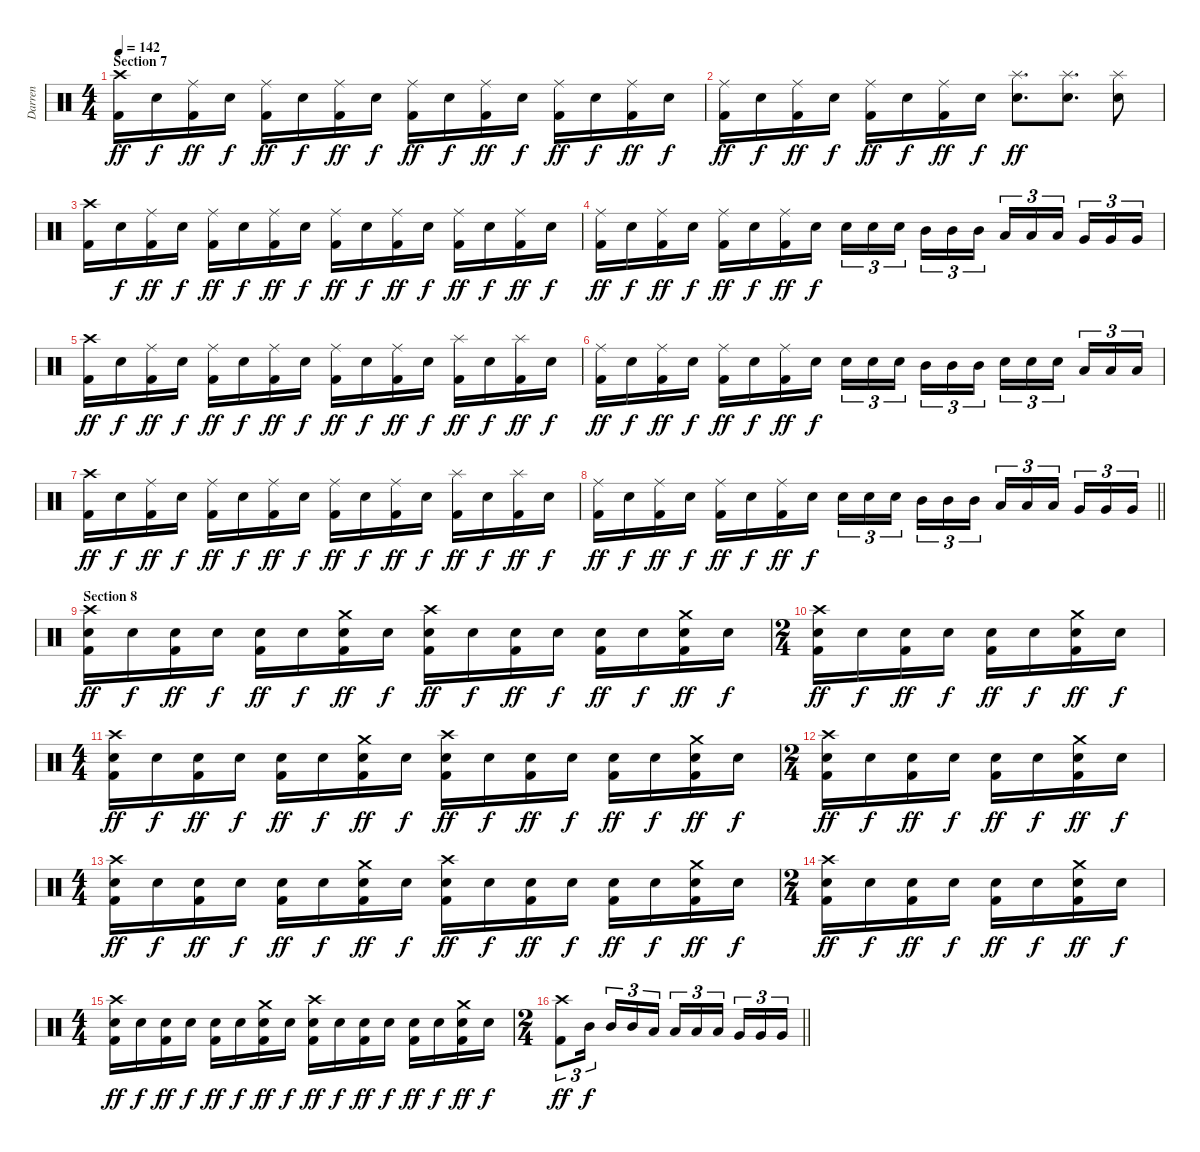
\track ("Darren" "Darren") {instrument percussion}
\staff {score}
\articulation defaults
\ts (4 4)
\section ("" "Section 7")
\tempo 142
\clef neutral
\ks c
("Crash high (hit)" "Kick (hit) 2").16{dy ff} "Electric Snare (hit)".16{dy f} ("Ride (middle)" "Kick (hit) 2").16{dy ff} "Electric Snare (hit)".16{dy f} ("Ride (middle)" "Kick (hit) 2").16{dy ff} "Electric Snare (hit)".16{dy f} ("Ride (middle)" "Kick (hit) 2").16{dy ff} "Electric Snare (hit)".16{dy f} ("Ride (middle)" "Kick (hit) 2").16{dy ff} "Electric Snare (hit)".16{dy f} ("Ride (middle)" "Kick (hit) 2").16{dy ff} "Electric Snare (hit)".16{dy f} ("Ride (middle)" "Kick (hit) 2").16{dy ff} "Electric Snare (hit)".16{dy f} ("Ride (middle)" "Kick (hit) 2").16{dy ff} "Electric Snare (hit)".16{dy f} |
("Ride (middle)" "Kick (hit) 2").16{dy ff} "Electric Snare (hit)".16{dy f} ("Ride (middle)" "Kick (hit) 2").16{dy ff} "Electric Snare (hit)".16{dy f} ("Ride (middle)" "Kick (hit) 2").16{dy ff} "Electric Snare (hit)".16{dy f} ("Ride (middle)" "Kick (hit) 2").16{dy ff} "Electric Snare (hit)".16{dy f} ("Splash (hit)" "Electric Snare (hit)").8{d dy ff} ("Splash (hit)" "Electric Snare (hit)").8{d} ("Splash (hit)" "Electric Snare (hit)").8 |
("Crash high (hit)" "Kick (hit) 2").16 "Electric Snare (hit)".16{dy f} ("Ride (middle)" "Kick (hit) 2").16{dy ff} "Electric Snare (hit)".16{dy f} ("Ride (middle)" "Kick (hit) 2").16{dy ff} "Electric Snare (hit)".16{dy f} ("Ride (middle)" "Kick (hit) 2").16{dy ff} "Electric Snare (hit)".16{dy f} ("Ride (middle)" "Kick (hit) 2").16{dy ff} "Electric Snare (hit)".16{dy f} ("Ride (middle)" "Kick (hit) 2").16{dy ff} "Electric Snare (hit)".16{dy f} ("Ride (middle)" "Kick (hit) 2").16{dy ff} "Electric Snare (hit)".16{dy f} ("Ride (middle)" "Kick (hit) 2").16{dy ff} "Electric Snare (hit)".16{dy f} |
("Ride (middle)" "Kick (hit) 2").16{dy ff} "Electric Snare (hit)".16{dy f} ("Ride (middle)" "Kick (hit) 2").16{dy ff} "Electric Snare (hit)".16{dy f} ("Ride (middle)" "Kick (hit) 2").16{dy ff} "Electric Snare (hit)".16{dy f} ("Ride (middle)" "Kick (hit) 2").16{dy ff} "Electric Snare (hit)".16{dy f} "Electric Snare (hit)".16{tu (3 2)} "Electric Snare (hit)".16{tu (3 2)} "Electric Snare (hit)".16{tu (3 2) beam splitsecondary} "Mid Tom (hit)".16{tu (3 2)} "Mid Tom (hit)".16{tu (3 2)} "Mid Tom (hit)".16{tu (3 2)} "Low Tom (hit)".16{tu (3 2)} "Low Tom (hit)".16{tu (3 2)} "Low Tom (hit)".16{tu (3 2) beam splitsecondary} "Very Low Tom (hit)".16{tu (3 2)} "Very Low Tom (hit)".16{tu (3 2)} "Very Low Tom (hit)".16{tu (3 2)} |
("Crash high (hit)" "Kick (hit) 2").16{dy ff} "Electric Snare (hit)".16{dy f} ("Ride (middle)" "Kick (hit) 2").16{dy ff} "Electric Snare (hit)".16{dy f} ("Ride (middle)" "Kick (hit) 2").16{dy ff} "Electric Snare (hit)".16{dy f} ("Ride (middle)" "Kick (hit) 2").16{dy ff} "Electric Snare (hit)".16{dy f} ("Ride (middle)" "Kick (hit) 2").16{dy ff} "Electric Snare (hit)".16{dy f} ("Ride (middle)" "Kick (hit) 2").16{dy ff} "Electric Snare (hit)".16{dy f} ("Splash (hit)" "Kick (hit) 2").16{dy ff} "Electric Snare (hit)".16{dy f} ("Splash (hit)" "Kick (hit) 2").16{dy ff} "Electric Snare (hit)".16{dy f} |
("Ride (middle)" "Kick (hit) 2").16{dy ff} "Electric Snare (hit)".16{dy f} ("Ride (middle)" "Kick (hit) 2").16{dy ff} "Electric Snare (hit)".16{dy f} ("Ride (middle)" "Kick (hit) 2").16{dy ff} "Electric Snare (hit)".16{dy f} ("Ride (middle)" "Kick (hit) 2").16{dy ff} "Electric Snare (hit)".16{dy f} "Electric Snare (hit)".16{tu (3 2)} "Electric Snare (hit)".16{tu (3 2)} "Electric Snare (hit)".16{tu (3 2) beam splitsecondary} "Mid Tom (hit)".16{tu (3 2)} "Mid Tom (hit)".16{tu (3 2)} "Mid Tom (hit)".16{tu (3 2)} "Electric Snare (hit)".16{tu (3 2)} "Electric Snare (hit)".16{tu (3 2)} "Electric Snare (hit)".16{tu (3 2) beam splitsecondary} "Low Tom (hit)".16{tu (3 2)} "Low Tom (hit)".16{tu (3 2)} "Low Tom (hit)".16{tu (3 2)} |
("Crash high (hit)" "Kick (hit) 2").16{dy ff} "Electric Snare (hit)".16{dy f} ("Ride (middle)" "Kick (hit) 2").16{dy ff} "Electric Snare (hit)".16{dy f} ("Ride (middle)" "Kick (hit) 2").16{dy ff} "Electric Snare (hit)".16{dy f} ("Ride (middle)" "Kick (hit) 2").16{dy ff} "Electric Snare (hit)".16{dy f} ("Ride (middle)" "Kick (hit) 2").16{dy ff} "Electric Snare (hit)".16{dy f} ("Ride (middle)" "Kick (hit) 2").16{dy ff} "Electric Snare (hit)".16{dy f} ("Splash (hit)" "Kick (hit) 2").16{dy ff} "Electric Snare (hit)".16{dy f} ("Splash (hit)" "Kick (hit) 2").16{dy ff} "Electric Snare (hit)".16{dy f} |
\barLineRight lightlight
("Ride (middle)" "Kick (hit) 2").16{dy ff} "Electric Snare (hit)".16{dy f} ("Ride (middle)" "Kick (hit) 2").16{dy ff} "Electric Snare (hit)".16{dy f} ("Ride (middle)" "Kick (hit) 2").16{dy ff} "Electric Snare (hit)".16{dy f} ("Ride (middle)" "Kick (hit) 2").16{dy ff} "Electric Snare (hit)".16{dy f} "Electric Snare (hit)".16{tu (3 2)} "Electric Snare (hit)".16{tu (3 2)} "Electric Snare (hit)".16{tu (3 2) beam splitsecondary} "Mid Tom (hit)".16{tu (3 2)} "Mid Tom (hit)".16{tu (3 2)} "Mid Tom (hit)".16{tu (3 2)} "Low Tom (hit)".16{tu (3 2)} "Low Tom (hit)".16{tu (3 2)} "Low Tom (hit)".16{tu (3 2) beam splitsecondary} "Very Low Tom (hit)".16{tu (3 2)} "Very Low Tom (hit)".16{tu (3 2)} "Very Low Tom (hit)".16{tu (3 2)} |
\section ("" "Section 8")
("Crash high (hit)" "Electric Snare (hit)" "Kick (hit) 2").16{dy ff} "Electric Snare (hit)".16{dy f} ("Electric Snare (hit)" "Kick (hit) 2").16{dy ff} "Electric Snare (hit)".16{dy f} ("Electric Snare (hit)" "Kick (hit) 2").16{dy ff} "Electric Snare (hit)".16{dy f} ("Crash medium (hit)" "Electric Snare (hit)" "Kick (hit) 2").16{dy ff} "Electric Snare (hit)".16{dy f} ("Crash high (hit)" "Electric Snare (hit)" "Kick (hit) 2").16{dy ff} "Electric Snare (hit)".16{dy f} ("Electric Snare (hit)" "Kick (hit) 2").16{dy ff} "Electric Snare (hit)".16{dy f} ("Electric Snare (hit)" "Kick (hit) 2").16{dy ff} "Electric Snare (hit)".16{dy f} ("Crash medium (hit)" "Electric Snare (hit)" "Kick (hit) 2").16{dy ff} "Electric Snare (hit)".16{dy f} |
\ts (2 4)
("Crash high (hit)" "Electric Snare (hit)" "Kick (hit) 2").16{dy ff} "Electric Snare (hit)".16{dy f} ("Electric Snare (hit)" "Kick (hit) 2").16{dy ff} "Electric Snare (hit)".16{dy f} ("Electric Snare (hit)" "Kick (hit) 2").16{dy ff} "Electric Snare (hit)".16{dy f} ("Crash medium (hit)" "Electric Snare (hit)" "Kick (hit) 2").16{dy ff} "Electric Snare (hit)".16{dy f} |
\ts (4 4)
("Crash high (hit)" "Electric Snare (hit)" "Kick (hit) 2").16{dy ff} "Electric Snare (hit)".16{dy f} ("Electric Snare (hit)" "Kick (hit) 2").16{dy ff} "Electric Snare (hit)".16{dy f} ("Electric Snare (hit)" "Kick (hit) 2").16{dy ff} "Electric Snare (hit)".16{dy f} ("Crash medium (hit)" "Electric Snare (hit)" "Kick (hit) 2").16{dy ff} "Electric Snare (hit)".16{dy f} ("Crash high (hit)" "Electric Snare (hit)" "Kick (hit) 2").16{dy ff} "Electric Snare (hit)".16{dy f} ("Electric Snare (hit)" "Kick (hit) 2").16{dy ff} "Electric Snare (hit)".16{dy f} ("Electric Snare (hit)" "Kick (hit) 2").16{dy ff} "Electric Snare (hit)".16{dy f} ("Crash medium (hit)" "Electric Snare (hit)" "Kick (hit) 2").16{dy ff} "Electric Snare (hit)".16{dy f} |
\ts (2 4)
("Crash high (hit)" "Electric Snare (hit)" "Kick (hit) 2").16{dy ff} "Electric Snare (hit)".16{dy f} ("Electric Snare (hit)" "Kick (hit) 2").16{dy ff} "Electric Snare (hit)".16{dy f} ("Electric Snare (hit)" "Kick (hit) 2").16{dy ff} "Electric Snare (hit)".16{dy f} ("Crash medium (hit)" "Electric Snare (hit)" "Kick (hit) 2").16{dy ff} "Electric Snare (hit)".16{dy f} |
\ts (4 4)
("Crash high (hit)" "Electric Snare (hit)" "Kick (hit) 2").16{dy ff} "Electric Snare (hit)".16{dy f} ("Electric Snare (hit)" "Kick (hit) 2").16{dy ff} "Electric Snare (hit)".16{dy f} ("Electric Snare (hit)" "Kick (hit) 2").16{dy ff} "Electric Snare (hit)".16{dy f} ("Crash medium (hit)" "Electric Snare (hit)" "Kick (hit) 2").16{dy ff} "Electric Snare (hit)".16{dy f} ("Crash high (hit)" "Electric Snare (hit)" "Kick (hit) 2").16{dy ff} "Electric Snare (hit)".16{dy f} ("Electric Snare (hit)" "Kick (hit) 2").16{dy ff} "Electric Snare (hit)".16{dy f} ("Electric Snare (hit)" "Kick (hit) 2").16{dy ff} "Electric Snare (hit)".16{dy f} ("Crash medium (hit)" "Electric Snare (hit)" "Kick (hit) 2").16{dy ff} "Electric Snare (hit)".16{dy f} |
\ts (2 4)
("Crash high (hit)" "Electric Snare (hit)" "Kick (hit) 2").16{dy ff} "Electric Snare (hit)".16{dy f} ("Electric Snare (hit)" "Kick (hit) 2").16{dy ff} "Electric Snare (hit)".16{dy f} ("Electric Snare (hit)" "Kick (hit) 2").16{dy ff} "Electric Snare (hit)".16{dy f} ("Crash medium (hit)" "Electric Snare (hit)" "Kick (hit) 2").16{dy ff} "Electric Snare (hit)".16{dy f} |
\ts (4 4)
("Crash high (hit)" "Electric Snare (hit)" "Kick (hit) 2").16{dy ff} "Electric Snare (hit)".16{dy f} ("Electric Snare (hit)" "Kick (hit) 2").16{dy ff} "Electric Snare (hit)".16{dy f} ("Electric Snare (hit)" "Kick (hit) 2").16{dy ff} "Electric Snare (hit)".16{dy f} ("Crash medium (hit)" "Electric Snare (hit)" "Kick (hit) 2").16{dy ff} "Electric Snare (hit)".16{dy f} ("Crash high (hit)" "Electric Snare (hit)" "Kick (hit) 2").16{dy ff} "Electric Snare (hit)".16{dy f} ("Electric Snare (hit)" "Kick (hit) 2").16{dy ff} "Electric Snare (hit)".16{dy f} ("Electric Snare (hit)" "Kick (hit) 2").16{dy ff} "Electric Snare (hit)".16{dy f} ("Crash medium (hit)" "Electric Snare (hit)" "Kick (hit) 2").16{dy ff} "Electric Snare (hit)".16{dy f} |
\ts (2 4)
\barLineRight lightlight
("Crash high (hit)" "Kick (hit) 2").8{tu (3 2) dy ff} "Mid Tom (hit)".16{tu (3 2) dy f beam splitsecondary} "Mid Tom (hit)".16{tu (3 2)} "Mid Tom (hit)".16{tu (3 2)} "Low Tom (hit)".16{tu (3 2)} "Low Tom (hit)".16{tu (3 2)} "Low Tom (hit)".16{tu (3 2)} "Low Tom (hit)".16{tu (3 2) beam splitsecondary} "Very Low Tom (hit)".16{tu (3 2)} "Very Low Tom (hit)".16{tu (3 2)} "Very Low Tom (hit)".16{tu (3 2)}
